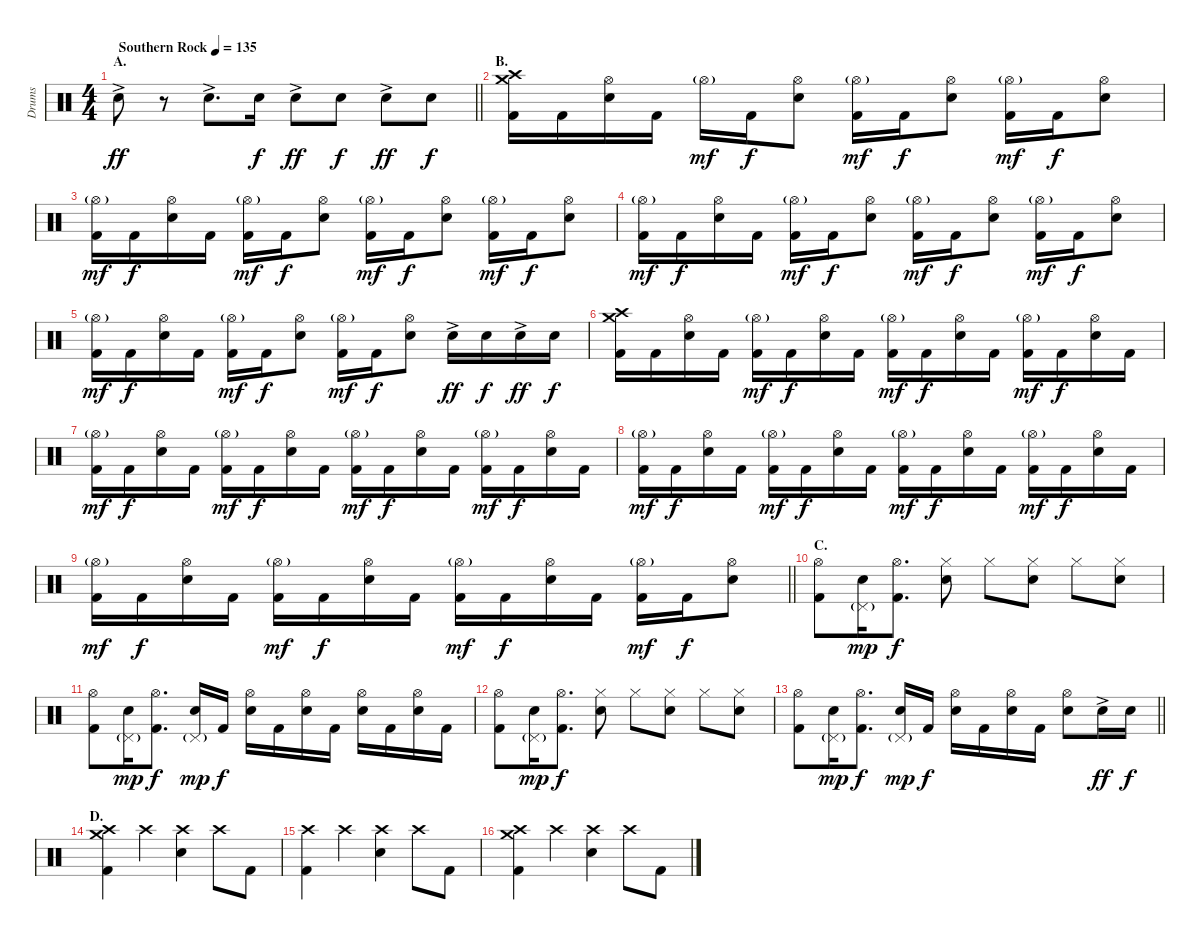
\track ("Drums" "Drums") {instrument percussion}
\staff {score}
\articulation defaults
\ts (4 4)
\section ("" "A.")
\tempo (135 "Southern Rock")
\clef neutral
\barLineRight lightlight
\ks c "Electric Snare (hit)"{ac}.8{dy ff}
r.8 "Electric Snare (hit)"{ac}.8{d} "Electric Snare (hit)".16{dy f} "Electric Snare (hit)"{ac}.8{dy ff} "Electric Snare (hit)".8{dy f} "Electric Snare (hit)"{ac}.8{dy ff} "Electric Snare (hit)".8{dy f} |
\section ("" "B.")
("Crash medium (hit)" "Crash high (hit)" "Kick (hit) 2").16 "Kick (hit) 2".16 ("Hi-Hat (open)" "Electric Snare (hit)").16 "Kick (hit) 2".16 "Hi-Hat (open)"{g}.16{dy mf} "Kick (hit) 2".16{dy f} ("Hi-Hat (open)" "Electric Snare (hit)").8 ("Hi-Hat (open)"{g} "Kick (hit) 2").16{dy mf} "Kick (hit) 2".16{dy f} ("Hi-Hat (open)" "Electric Snare (hit)").8 ("Hi-Hat (open)"{g} "Kick (hit) 2").16{dy mf} "Kick (hit) 2".16{dy f} ("Hi-Hat (open)" "Electric Snare (hit)").8 |
("Hi-Hat (open)"{g} "Kick (hit) 2").16{dy mf} "Kick (hit) 2".16{dy f} ("Hi-Hat (open)" "Electric Snare (hit)").16 "Kick (hit) 2".16 ("Hi-Hat (open)"{g} "Kick (hit) 2").16{dy mf} "Kick (hit) 2".16{dy f} ("Hi-Hat (open)" "Electric Snare (hit)").8 ("Hi-Hat (open)"{g} "Kick (hit) 2").16{dy mf} "Kick (hit) 2".16{dy f} ("Hi-Hat (open)" "Electric Snare (hit)").8 ("Hi-Hat (open)"{g} "Kick (hit) 2").16{dy mf} "Kick (hit) 2".16{dy f} ("Hi-Hat (open)" "Electric Snare (hit)").8 |
("Hi-Hat (open)"{g} "Kick (hit) 2").16{dy mf} "Kick (hit) 2".16{dy f} ("Hi-Hat (open)" "Electric Snare (hit)").16 "Kick (hit) 2".16 ("Hi-Hat (open)"{g} "Kick (hit) 2").16{dy mf} "Kick (hit) 2".16{dy f} ("Hi-Hat (open)" "Electric Snare (hit)").8 ("Hi-Hat (open)"{g} "Kick (hit) 2").16{dy mf} "Kick (hit) 2".16{dy f} ("Hi-Hat (open)" "Electric Snare (hit)").8 ("Hi-Hat (open)"{g} "Kick (hit) 2").16{dy mf} "Kick (hit) 2".16{dy f} ("Hi-Hat (open)" "Electric Snare (hit)").8 |
("Hi-Hat (open)"{g} "Kick (hit) 2").16{dy mf} "Kick (hit) 2".16{dy f} ("Hi-Hat (open)" "Electric Snare (hit)").16 "Kick (hit) 2".16 ("Hi-Hat (open)"{g} "Kick (hit) 2").16{dy mf} "Kick (hit) 2".16{dy f} ("Hi-Hat (open)" "Electric Snare (hit)").8 ("Hi-Hat (open)"{g} "Kick (hit) 2").16{dy mf} "Kick (hit) 2".16{dy f} ("Hi-Hat (open)" "Electric Snare (hit)").8 "Electric Snare (hit)"{ac}.16{dy ff} "Electric Snare (hit)".16{dy f} "Electric Snare (hit)"{ac}.16{dy ff} "Electric Snare (hit)".16{dy f} |
("Crash medium (hit)" "Crash high (hit)" "Kick (hit) 2").16 "Kick (hit) 2".16 ("Hi-Hat (open)" "Electric Snare (hit)").16 "Kick (hit) 2".16 ("Hi-Hat (open)"{g} "Kick (hit) 2").16{dy mf} "Kick (hit) 2".16{dy f} ("Hi-Hat (open)" "Electric Snare (hit)").16 "Kick (hit) 2".16 ("Hi-Hat (open)"{g} "Kick (hit) 2").16{dy mf} "Kick (hit) 2".16{dy f} ("Hi-Hat (open)" "Electric Snare (hit)").16 "Kick (hit) 2".16 ("Hi-Hat (open)"{g} "Kick (hit) 2").16{dy mf} "Kick (hit) 2".16{dy f} ("Hi-Hat (open)" "Electric Snare (hit)").16 "Kick (hit) 2".16 |
("Hi-Hat (open)"{g} "Kick (hit) 2").16{dy mf} "Kick (hit) 2".16{dy f} ("Hi-Hat (open)" "Electric Snare (hit)").16 "Kick (hit) 2".16 ("Hi-Hat (open)"{g} "Kick (hit) 2").16{dy mf} "Kick (hit) 2".16{dy f} ("Hi-Hat (open)" "Electric Snare (hit)").16 "Kick (hit) 2".16 ("Hi-Hat (open)"{g} "Kick (hit) 2").16{dy mf} "Kick (hit) 2".16{dy f} ("Hi-Hat (open)" "Electric Snare (hit)").16 "Kick (hit) 2".16 ("Hi-Hat (open)"{g} "Kick (hit) 2").16{dy mf} "Kick (hit) 2".16{dy f} ("Hi-Hat (open)" "Electric Snare (hit)").16 "Kick (hit) 2".16 |
("Hi-Hat (open)"{g} "Kick (hit) 2").16{dy mf} "Kick (hit) 2".16{dy f} ("Hi-Hat (open)" "Electric Snare (hit)").16 "Kick (hit) 2".16 ("Hi-Hat (open)"{g} "Kick (hit) 2").16{dy mf} "Kick (hit) 2".16{dy f} ("Hi-Hat (open)" "Electric Snare (hit)").16 "Kick (hit) 2".16 ("Hi-Hat (open)"{g} "Kick (hit) 2").16{dy mf} "Kick (hit) 2".16{dy f} ("Hi-Hat (open)" "Electric Snare (hit)").16 "Kick (hit) 2".16 ("Hi-Hat (open)"{g} "Kick (hit) 2").16{dy mf} "Kick (hit) 2".16{dy f} ("Hi-Hat (open)" "Electric Snare (hit)").16 "Kick (hit) 2".16 |
\barLineRight lightlight
("Hi-Hat (open)"{g} "Kick (hit) 2").16{dy mf} "Kick (hit) 2".16{dy f} ("Hi-Hat (open)" "Electric Snare (hit)").16 "Kick (hit) 2".16 ("Hi-Hat (open)"{g} "Kick (hit) 2").16{dy mf} "Kick (hit) 2".16{dy f} ("Hi-Hat (open)" "Electric Snare (hit)").16 "Kick (hit) 2".16 ("Hi-Hat (open)"{g} "Kick (hit) 2").16{dy mf} "Kick (hit) 2".16{dy f} ("Hi-Hat (open)" "Electric Snare (hit)").16 "Kick (hit) 2".16 ("Hi-Hat (open)"{g} "Kick (hit) 2").16{dy mf} "Kick (hit) 2".16{dy f} ("Hi-Hat (open)" "Electric Snare (hit)").8 |
\section ("" "C.")
("Hi-Hat (open)" "Kick (hit) 2").8 ("Pedal Hi-Hat (hit)"{g} "Electric Snare (hit)").16{dy mp} ("Hi-Hat (open)" "Kick (hit) 2").8{d dy f} ("Hi-Hat (closed)" "Electric Snare (hit)").8 "Hi-Hat (closed)".8 ("Hi-Hat (closed)" "Electric Snare (hit)").8 "Hi-Hat (closed)".8 ("Hi-Hat (closed)" "Electric Snare (hit)").8 |
("Hi-Hat (open)" "Kick (hit) 2").8 ("Pedal Hi-Hat (hit)"{g} "Electric Snare (hit)").16{dy mp} ("Hi-Hat (open)" "Kick (hit) 2").8{d dy f} ("Pedal Hi-Hat (hit)"{g} "Electric Snare (hit)").16{dy mp} "Kick (hit) 2".16{dy f} ("Hi-Hat (open)" "Electric Snare (hit)").16 "Kick (hit) 2".16 ("Hi-Hat (open)" "Electric Snare (hit)").16 "Kick (hit) 2".16 ("Hi-Hat (open)" "Electric Snare (hit)").16 "Kick (hit) 2".16 ("Hi-Hat (open)" "Electric Snare (hit)").16 "Kick (hit) 2".16 |
("Hi-Hat (open)" "Kick (hit) 2").8 ("Pedal Hi-Hat (hit)"{g} "Electric Snare (hit)").16{dy mp} ("Hi-Hat (open)" "Kick (hit) 2").8{d dy f} ("Hi-Hat (closed)" "Electric Snare (hit)").8 "Hi-Hat (closed)".8 ("Hi-Hat (closed)" "Electric Snare (hit)").8 "Hi-Hat (closed)".8 ("Hi-Hat (closed)" "Electric Snare (hit)").8 |
\barLineRight lightlight
("Hi-Hat (open)" "Kick (hit) 2").8 ("Pedal Hi-Hat (hit)"{g} "Electric Snare (hit)").16{dy mp} ("Hi-Hat (open)" "Kick (hit) 2").8{d dy f} ("Pedal Hi-Hat (hit)"{g} "Electric Snare (hit)").16{dy mp} "Kick (hit) 2".16{dy f} ("Hi-Hat (open)" "Electric Snare (hit)").16 "Kick (hit) 2".16 ("Hi-Hat (open)" "Electric Snare (hit)").16 "Kick (hit) 2".16 ("Hi-Hat (open)" "Electric Snare (hit)").8 "Electric Snare (hit)"{ac}.16{dy ff} "Electric Snare (hit)".16{dy f} |
\section ("" "D.")
("Crash medium (hit)" "Crash high (hit)" "Kick (hit) 2").4 "Crash high (hit)".4 ("Crash high (hit)" "Electric Snare (hit)").4 "Crash high (hit)".8 "Kick (hit) 2".8 |
("Crash high (hit)" "Kick (hit) 2").4 "Crash high (hit)".4 ("Crash high (hit)" "Electric Snare (hit)").4 "Crash high (hit)".8 "Kick (hit) 2".8 |
("Crash medium (hit)" "Crash high (hit)" "Kick (hit) 2").4 "Crash high (hit)".4 ("Crash high (hit)" "Electric Snare (hit)").4 "Crash high (hit)".8 "Kick (hit) 2".8
